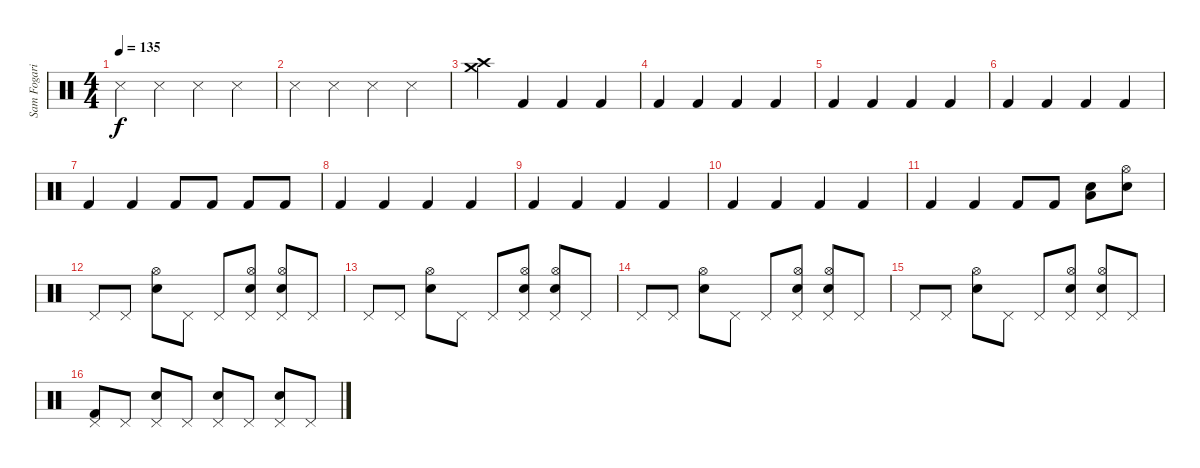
\track ("Sam Fogarino" "Sam Fogari") {instrument percussion}
\staff {score}
\articulation defaults
\ts (4 4)
\tempo 135
\clef neutral
\ks c "Snare (side stick) 3".4{dy f} "Snare (side stick) 3".4 "Snare (side stick) 3".4 "Snare (side stick) 3".4
|
"Snare (side stick) 3".4 "Snare (side stick) 3".4 "Snare (side stick) 3".4 "Snare (side stick) 3".4 |
("Crash high (hit)" "Crash medium (hit)").4 "Kick (hit) 2".4 "Kick (hit) 2".4 "Kick (hit) 2".4 |
"Kick (hit) 2".4 "Kick (hit) 2".4 "Kick (hit) 2".4 "Kick (hit) 2".4 |
"Kick (hit) 2".4 "Kick (hit) 2".4 "Kick (hit) 2".4 "Kick (hit) 2".4 |
"Kick (hit) 2".4 "Kick (hit) 2".4 "Kick (hit) 2".4 "Kick (hit) 2".4 |
"Kick (hit) 2".4 "Kick (hit) 2".4 "Kick (hit) 2".8 "Kick (hit) 2".8 "Kick (hit) 2".8 "Kick (hit) 2".8 |
"Kick (hit) 2".4 "Kick (hit) 2".4 "Kick (hit) 2".4 "Kick (hit) 2".4 |
"Kick (hit) 2".4 "Kick (hit) 2".4 "Kick (hit) 2".4 "Kick (hit) 2".4 |
"Kick (hit) 2".4 "Kick (hit) 2".4 "Kick (hit) 2".4 "Kick (hit) 2".4 |
"Kick (hit) 2".4 "Kick (hit) 2".4 "Kick (hit) 2".8 "Kick (hit) 2".8 ("Low Floor Tom (hit)" "Electric Snare (hit)").8 ("Electric Snare (hit)" "Hi-Hat (open)").8 |
"Pedal Hi-Hat (hit)".8 "Pedal Hi-Hat (hit)".8 ("Electric Snare (hit)" "Hi-Hat (open)").8 "Pedal Hi-Hat (hit)".8 "Pedal Hi-Hat (hit)".8 ("Electric Snare (hit)" "Pedal Hi-Hat (hit)" "Hi-Hat (open)").8 ("Electric Snare (hit)" "Pedal Hi-Hat (hit)" "Hi-Hat (open)").8 "Pedal Hi-Hat (hit)".8 |
"Pedal Hi-Hat (hit)".8 "Pedal Hi-Hat (hit)".8 ("Electric Snare (hit)" "Hi-Hat (open)").8 "Pedal Hi-Hat (hit)".8 "Pedal Hi-Hat (hit)".8 ("Electric Snare (hit)" "Pedal Hi-Hat (hit)" "Hi-Hat (open)").8 ("Electric Snare (hit)" "Pedal Hi-Hat (hit)" "Hi-Hat (open)").8 "Pedal Hi-Hat (hit)".8 |
"Pedal Hi-Hat (hit)".8 "Pedal Hi-Hat (hit)".8 ("Electric Snare (hit)" "Hi-Hat (open)").8 "Pedal Hi-Hat (hit)".8 "Pedal Hi-Hat (hit)".8 ("Electric Snare (hit)" "Pedal Hi-Hat (hit)" "Hi-Hat (open)").8 ("Electric Snare (hit)" "Pedal Hi-Hat (hit)" "Hi-Hat (open)").8 "Pedal Hi-Hat (hit)".8 |
"Pedal Hi-Hat (hit)".8 "Pedal Hi-Hat (hit)".8 ("Electric Snare (hit)" "Hi-Hat (open)").8 "Pedal Hi-Hat (hit)".8 "Pedal Hi-Hat (hit)".8 ("Electric Snare (hit)" "Pedal Hi-Hat (hit)" "Hi-Hat (open)").8 ("Electric Snare (hit)" "Pedal Hi-Hat (hit)" "Hi-Hat (open)").8 "Pedal Hi-Hat (hit)".8 |
("Kick (hit) 2" "Pedal Hi-Hat (hit)").8 "Pedal Hi-Hat (hit)".8 ("Electric Snare (hit)" "Pedal Hi-Hat (hit)").8 "Pedal Hi-Hat (hit)".8 ("Electric Snare (hit)" "Pedal Hi-Hat (hit)").8 "Pedal Hi-Hat (hit)".8 ("Electric Snare (hit)" "Pedal Hi-Hat (hit)").8 "Pedal Hi-Hat (hit)".8
